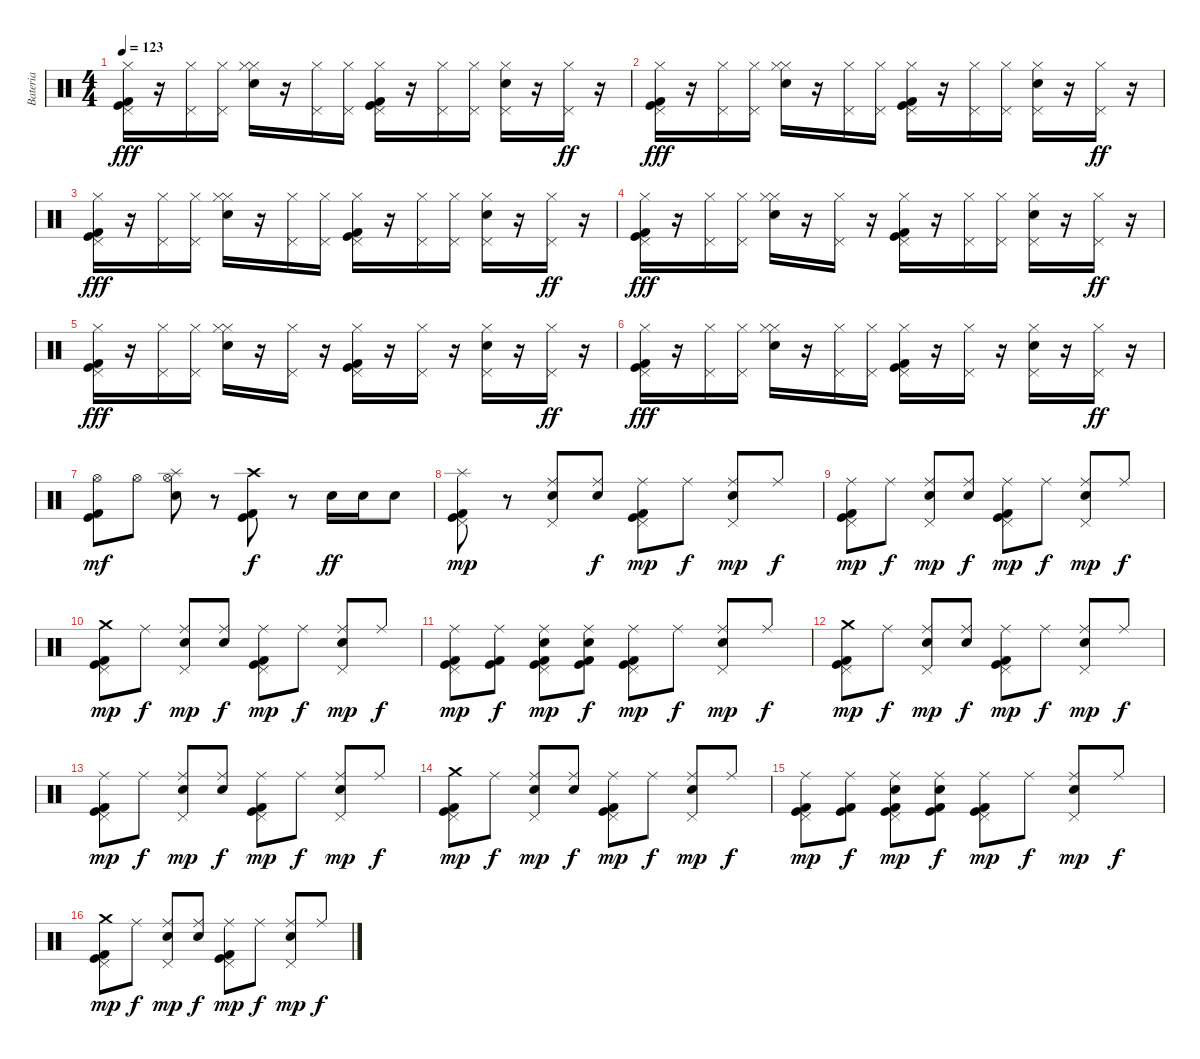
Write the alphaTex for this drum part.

\track ("Bateria" "Bateria") {instrument percussion}
\staff {score}
\articulation defaults
\ts (4 4)
\tempo 123
\clef neutral
\ks c
("Kick (hit) 2" "Hi-Hat (closed)" "Pedal Hi-Hat (hit)" "Kick (hit)").16{dy fff} r.16 ("Hi-Hat (closed)" "Pedal Hi-Hat (hit)").16 ("Hi-Hat (closed)" "Pedal Hi-Hat (hit)").16 ("Snare (hit) 2" "Hi-Hat (closed)" "Hi-Hat (closed)").16 r.16 ("Hi-Hat (closed)" "Pedal Hi-Hat (hit)").16 ("Hi-Hat (closed)" "Pedal Hi-Hat (hit)").16 ("Kick (hit) 2" "Hi-Hat (closed)" "Pedal Hi-Hat (hit)" "Kick (hit)").16 r.16 ("Hi-Hat (closed)" "Pedal Hi-Hat (hit)").16 ("Hi-Hat (closed)" "Pedal Hi-Hat (hit)").16 ("Snare (hit) 2" "Hi-Hat (closed)" "Pedal Hi-Hat (hit)").16 r.16 ("Hi-Hat (closed)" "Pedal Hi-Hat (hit)").16{dy ff} r.16 |
("Kick (hit) 2" "Hi-Hat (closed)" "Pedal Hi-Hat (hit)" "Kick (hit)").16{dy fff} r.16 ("Hi-Hat (closed)" "Pedal Hi-Hat (hit)").16 ("Hi-Hat (closed)" "Pedal Hi-Hat (hit)").16 ("Snare (hit) 2" "Hi-Hat (closed)" "Hi-Hat (closed)").16 r.16 ("Hi-Hat (closed)" "Pedal Hi-Hat (hit)").16 ("Hi-Hat (closed)" "Pedal Hi-Hat (hit)").16 ("Kick (hit) 2" "Hi-Hat (closed)" "Pedal Hi-Hat (hit)" "Kick (hit)").16 r.16 ("Hi-Hat (closed)" "Pedal Hi-Hat (hit)").16 ("Hi-Hat (closed)" "Pedal Hi-Hat (hit)").16 ("Snare (hit) 2" "Hi-Hat (closed)" "Pedal Hi-Hat (hit)").16 r.16 ("Hi-Hat (closed)" "Pedal Hi-Hat (hit)").16{dy ff} r.16 |
("Kick (hit) 2" "Hi-Hat (closed)" "Pedal Hi-Hat (hit)" "Kick (hit)").16{dy fff} r.16 ("Hi-Hat (closed)" "Pedal Hi-Hat (hit)").16 ("Hi-Hat (closed)" "Pedal Hi-Hat (hit)").16 ("Snare (hit) 2" "Hi-Hat (closed)" "Hi-Hat (closed)").16 r.16 ("Hi-Hat (closed)" "Pedal Hi-Hat (hit)").16 ("Hi-Hat (closed)" "Pedal Hi-Hat (hit)").16 ("Kick (hit) 2" "Hi-Hat (closed)" "Pedal Hi-Hat (hit)" "Kick (hit)").16 r.16 ("Hi-Hat (closed)" "Pedal Hi-Hat (hit)").16 ("Hi-Hat (closed)" "Pedal Hi-Hat (hit)").16 ("Snare (hit) 2" "Hi-Hat (closed)" "Pedal Hi-Hat (hit)").16 r.16 ("Hi-Hat (closed)" "Pedal Hi-Hat (hit)").16{dy ff} r.16 |
("Kick (hit) 2" "Hi-Hat (closed)" "Pedal Hi-Hat (hit)" "Kick (hit)").16{dy fff} r.16 ("Hi-Hat (closed)" "Pedal Hi-Hat (hit)").16 ("Hi-Hat (closed)" "Pedal Hi-Hat (hit)").16 ("Snare (hit) 2" "Hi-Hat (closed)" "Hi-Hat (closed)").16 r.16 ("Hi-Hat (closed)" "Pedal Hi-Hat (hit)").16 r.16 ("Kick (hit) 2" "Hi-Hat (closed)" "Pedal Hi-Hat (hit)" "Kick (hit)").16 r.16 ("Hi-Hat (closed)" "Pedal Hi-Hat (hit)").16 ("Hi-Hat (closed)" "Pedal Hi-Hat (hit)").16 ("Snare (hit) 2" "Hi-Hat (closed)" "Pedal Hi-Hat (hit)").16 r.16 ("Hi-Hat (closed)" "Pedal Hi-Hat (hit)").16{dy ff} r.16 |
("Kick (hit) 2" "Hi-Hat (closed)" "Pedal Hi-Hat (hit)" "Kick (hit)").16{dy fff} r.16 ("Hi-Hat (closed)" "Pedal Hi-Hat (hit)").16 ("Hi-Hat (closed)" "Pedal Hi-Hat (hit)").16 ("Snare (hit) 2" "Hi-Hat (closed)" "Hi-Hat (closed)").16 r.16 ("Hi-Hat (closed)" "Pedal Hi-Hat (hit)").16 r.16 ("Kick (hit) 2" "Hi-Hat (closed)" "Pedal Hi-Hat (hit)" "Kick (hit)").16 r.16 ("Hi-Hat (closed)" "Pedal Hi-Hat (hit)").16 r.16 ("Snare (hit) 2" "Hi-Hat (closed)" "Pedal Hi-Hat (hit)").16 r.16 ("Hi-Hat (closed)" "Pedal Hi-Hat (hit)").16{dy ff} r.16 |
("Kick (hit) 2" "Hi-Hat (closed)" "Pedal Hi-Hat (hit)" "Kick (hit)").16{dy fff} r.16 ("Hi-Hat (closed)" "Pedal Hi-Hat (hit)").16 ("Hi-Hat (closed)" "Pedal Hi-Hat (hit)").16 ("Snare (hit) 2" "Hi-Hat (closed)" "Hi-Hat (closed)").16 r.16 ("Hi-Hat (closed)" "Pedal Hi-Hat (hit)").16 ("Hi-Hat (closed)" "Pedal Hi-Hat (hit)").16 ("Kick (hit) 2" "Hi-Hat (closed)" "Pedal Hi-Hat (hit)" "Kick (hit)").16 r.16 ("Hi-Hat (closed)" "Pedal Hi-Hat (hit)").16 r.16 ("Snare (hit) 2" "Hi-Hat (closed)" "Pedal Hi-Hat (hit)").16 r.16 ("Hi-Hat (closed)" "Pedal Hi-Hat (hit)").16{dy ff} r.16 |
("Hi-Hat (open)" "Kick (hit) 2" "Kick (hit)").8{dy mf} "Hi-Hat (open)".8 ("Hi-Hat (open)" "Splash (hit)" "Snare (hit) 2").8 r.8 ("Crash high (hit)" "Kick (hit) 2" "Kick (hit)").8{dy f} r.8 "Snare (hit) 2".16{dy ff} "Snare (hit) 2".16 "Snare (hit) 2".8 |
("Kick (hit) 2" "Pedal Hi-Hat (hit)" "Splash (hit)" "Kick (hit)").8{dy mp} r.8 ("Snare (hit) 2" "Pedal Hi-Hat (hit)" "Ride (middle)").8 ("Snare (hit) 2" "Ride (middle)").8{dy f} ("Kick (hit) 2" "Pedal Hi-Hat (hit)" "Ride (middle)" "Kick (hit)").8{dy mp} "Ride (middle)".8{dy f} ("Snare (hit) 2" "Pedal Hi-Hat (hit)" "Ride (middle)").8{dy mp} "Ride (middle)".8{dy f} |
("Kick (hit) 2" "Pedal Hi-Hat (hit)" "Ride (middle)" "Kick (hit)").8{dy mp} "Ride (middle)".8{dy f} ("Snare (hit) 2" "Pedal Hi-Hat (hit)" "Ride (middle)").8{dy mp} ("Snare (hit) 2" "Ride (middle)").8{dy f} ("Kick (hit) 2" "Pedal Hi-Hat (hit)" "Ride (middle)" "Kick (hit)").8{dy mp} "Ride (middle)".8{dy f} ("Snare (hit) 2" "Pedal Hi-Hat (hit)" "Ride (middle)").8{dy mp} "Ride (middle)".8{dy f} |
("Kick (hit) 2" "Pedal Hi-Hat (hit)" "Crash medium (hit)" "Kick (hit)").8{dy mp} "Ride (middle)".8{dy f} ("Snare (hit) 2" "Pedal Hi-Hat (hit)" "Ride (middle)").8{dy mp} ("Snare (hit) 2" "Ride (middle)").8{dy f} ("Kick (hit) 2" "Pedal Hi-Hat (hit)" "Ride (middle)" "Kick (hit)").8{dy mp} "Ride (middle)".8{dy f} ("Snare (hit) 2" "Pedal Hi-Hat (hit)" "Ride (middle)").8{dy mp} "Ride (middle)".8{dy f} |
("Kick (hit) 2" "Pedal Hi-Hat (hit)" "Ride (middle)" "Kick (hit)").8{dy mp} ("Kick (hit) 2" "Ride (middle)" "Kick (hit)").8{dy f} ("Snare (hit) 2" "Pedal Hi-Hat (hit)" "Kick (hit) 2" "Ride (middle)" "Kick (hit)").8{dy mp} ("Snare (hit) 2" "Kick (hit) 2" "Ride (middle)" "Kick (hit)").8{dy f} ("Kick (hit) 2" "Pedal Hi-Hat (hit)" "Ride (middle)" "Kick (hit)").8{dy mp} "Ride (middle)".8{dy f} ("Snare (hit) 2" "Pedal Hi-Hat (hit)" "Ride (middle)").8{dy mp} "Ride (middle)".8{dy f} |
("Kick (hit) 2" "Pedal Hi-Hat (hit)" "Crash medium (hit)" "Kick (hit)").8{dy mp} "Ride (middle)".8{dy f} ("Snare (hit) 2" "Pedal Hi-Hat (hit)" "Ride (middle)").8{dy mp} ("Snare (hit) 2" "Ride (middle)").8{dy f} ("Kick (hit) 2" "Pedal Hi-Hat (hit)" "Ride (middle)" "Kick (hit)").8{dy mp} "Ride (middle)".8{dy f} ("Snare (hit) 2" "Pedal Hi-Hat (hit)" "Ride (middle)").8{dy mp} "Ride (middle)".8{dy f} |
("Kick (hit) 2" "Pedal Hi-Hat (hit)" "Ride (middle)" "Kick (hit)").8{dy mp} "Ride (middle)".8{dy f} ("Snare (hit) 2" "Pedal Hi-Hat (hit)" "Ride (middle)").8{dy mp} ("Snare (hit) 2" "Ride (middle)").8{dy f} ("Kick (hit) 2" "Pedal Hi-Hat (hit)" "Ride (middle)" "Kick (hit)").8{dy mp} "Ride (middle)".8{dy f} ("Snare (hit) 2" "Pedal Hi-Hat (hit)" "Ride (middle)").8{dy mp} "Ride (middle)".8{dy f} |
("Kick (hit) 2" "Pedal Hi-Hat (hit)" "Crash medium (hit)" "Kick (hit)").8{dy mp} "Ride (middle)".8{dy f} ("Snare (hit) 2" "Pedal Hi-Hat (hit)" "Ride (middle)").8{dy mp} ("Snare (hit) 2" "Ride (middle)").8{dy f} ("Kick (hit) 2" "Pedal Hi-Hat (hit)" "Ride (middle)" "Kick (hit)").8{dy mp} "Ride (middle)".8{dy f} ("Snare (hit) 2" "Pedal Hi-Hat (hit)" "Ride (middle)").8{dy mp} "Ride (middle)".8{dy f} |
("Kick (hit) 2" "Pedal Hi-Hat (hit)" "Ride (middle)" "Kick (hit)").8{dy mp} ("Kick (hit) 2" "Ride (middle)" "Kick (hit)").8{dy f} ("Snare (hit) 2" "Pedal Hi-Hat (hit)" "Kick (hit) 2" "Ride (middle)" "Kick (hit)").8{dy mp} ("Snare (hit) 2" "Kick (hit) 2" "Ride (middle)" "Kick (hit)").8{dy f} ("Kick (hit) 2" "Pedal Hi-Hat (hit)" "Ride (middle)" "Kick (hit)").8{dy mp} "Ride (middle)".8{dy f} ("Snare (hit) 2" "Pedal Hi-Hat (hit)" "Ride (middle)").8{dy mp} "Ride (middle)".8{dy f} |
("Kick (hit) 2" "Pedal Hi-Hat (hit)" "Crash medium (hit)" "Kick (hit)").8{dy mp} "Ride (middle)".8{dy f} ("Snare (hit) 2" "Pedal Hi-Hat (hit)" "Ride (middle)").8{dy mp} ("Snare (hit) 2" "Ride (middle)").8{dy f} ("Kick (hit) 2" "Pedal Hi-Hat (hit)" "Ride (middle)" "Kick (hit)").8{dy mp} "Ride (middle)".8{dy f} ("Snare (hit) 2" "Pedal Hi-Hat (hit)" "Ride (middle)").8{dy mp} "Ride (middle)".8{dy f}
